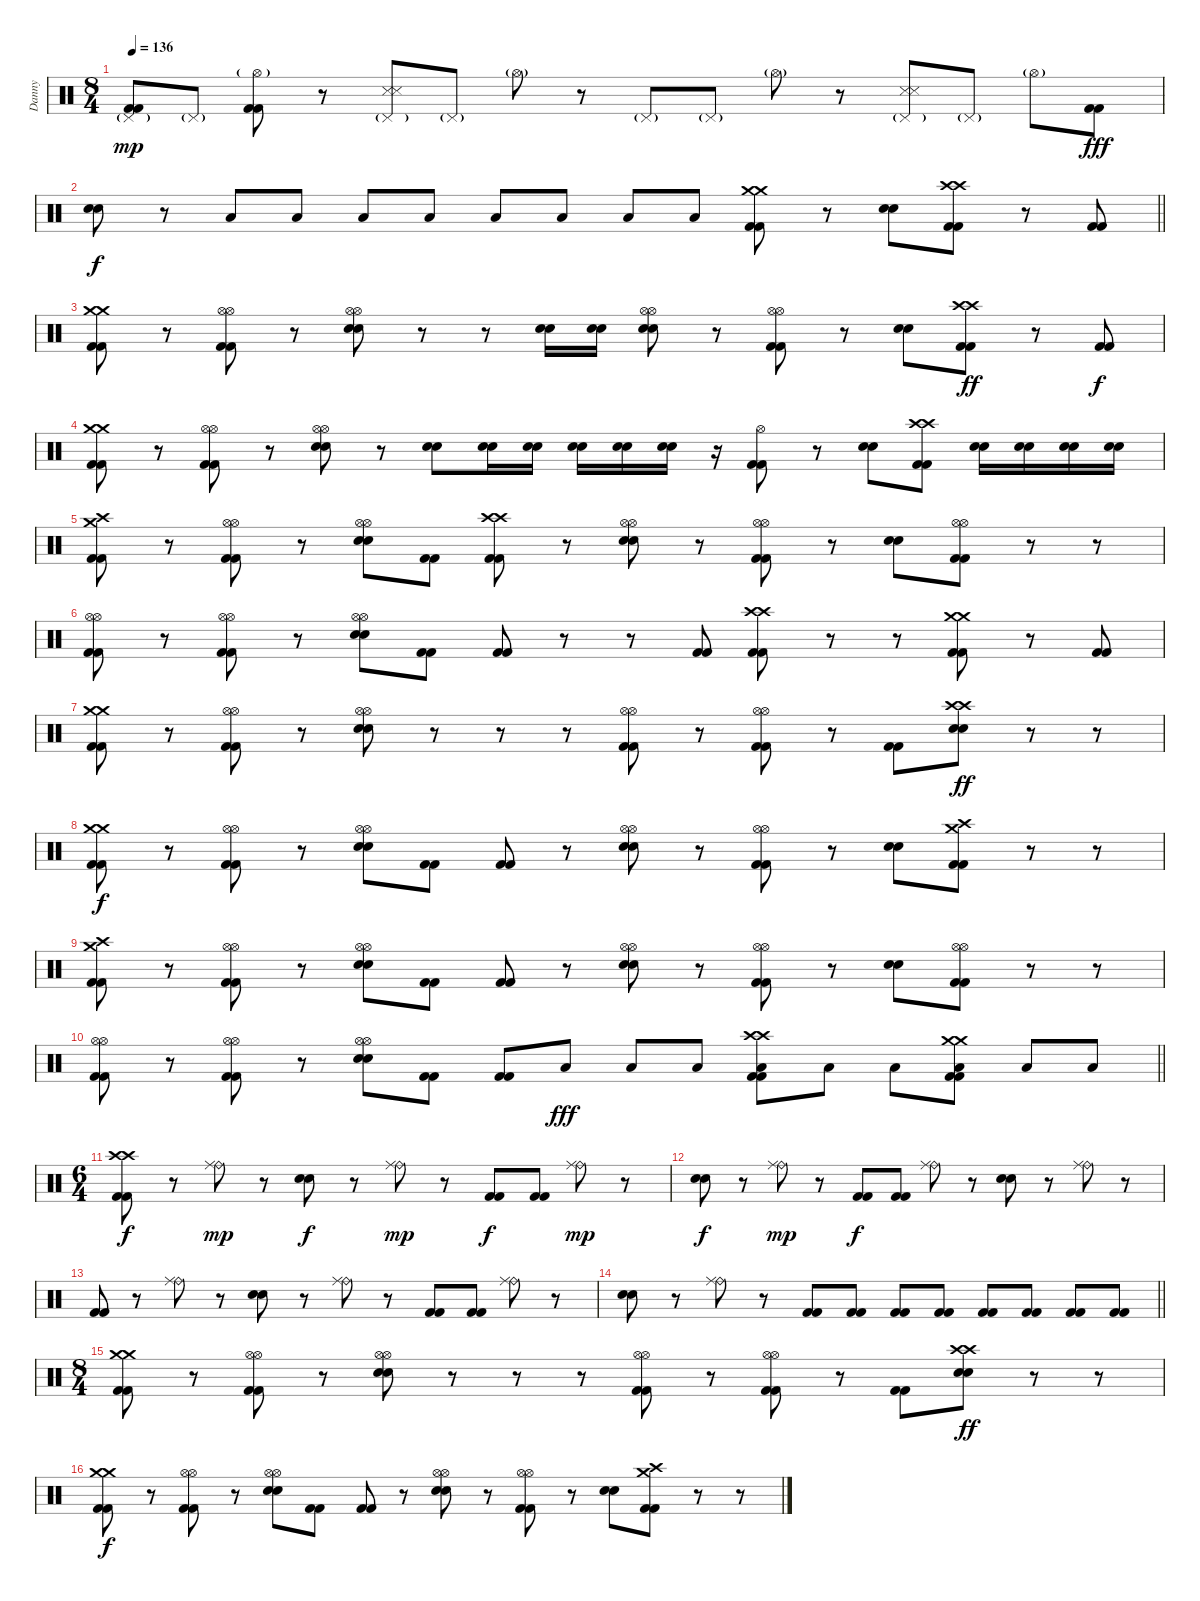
\track ("Danny" "Danny") {instrument percussion}
\staff {score}
\articulation defaults
\ts (8 4)
\section ("" "")
\tempo 136
\clef neutral
\ks c
("Pedal Hi-Hat (hit)"{g} "Kick (hit) 2" "Kick (hit) 2").8{dy mp} "Pedal Hi-Hat (hit)"{g}.8 ("Hi-Hat (open)"{g} "Kick (hit) 2" "Kick (hit) 2").8 r.8 ("Pedal Hi-Hat (hit)"{g} "Snare (side stick) 3" "Snare (side stick) 3").8 "Pedal Hi-Hat (hit)"{g}.8 "Hi-Hat (open)"{g}.8 r.8 "Pedal Hi-Hat (hit)"{g}.8 "Pedal Hi-Hat (hit)"{g}.8 "Hi-Hat (open)"{g}.8 r.8 ("Pedal Hi-Hat (hit)"{g} "Snare (side stick) 3" "Snare (side stick) 3").8 "Pedal Hi-Hat (hit)"{g}.8 "Hi-Hat (open)"{g}.8 ("Kick (hit) 2" "Kick (hit) 2").8{dy fff} |
\barLineRight lightlight
("Snare (hit) 2" "Snare (hit) 2").8{dy f} r.8 "Low Tom (hit)".8 "Low Tom (hit)".8 "Low Tom (hit)".8 "Low Tom (hit)".8 "Low Tom (hit)".8 "Low Tom (hit)".8 "Low Tom (hit)".8 "Low Tom (hit)".8 ("Crash medium (hit)" "Kick (hit) 2" "Kick (hit) 2" "Crash medium (hit)").8 r.8 ("Snare (hit) 2" "Snare (hit) 2").8 ("Crash high (hit)" "Kick (hit) 2" "Kick (hit) 2" "Crash high (hit)").8 r.8 ("Kick (hit) 2" "Kick (hit) 2").8 |
\section ("" "")
("Crash medium (hit)" "Kick (hit) 2" "Kick (hit) 2" "Crash medium (hit)").8 r.8 ("Hi-Hat (open)" "Kick (hit) 2" "Kick (hit) 2" "Hi-Hat (open)").8 r.8 ("Hi-Hat (open)" "Snare (hit) 2" "Snare (hit) 2" "Hi-Hat (open)").8 r.8 r.8 ("Snare (hit) 2" "Snare (hit) 2").16 ("Snare (hit) 2" "Snare (hit) 2").16 ("Hi-Hat (open)" "Snare (hit) 2" "Snare (hit) 2" "Hi-Hat (open)").8 r.8 ("Hi-Hat (open)" "Kick (hit) 2" "Kick (hit) 2" "Hi-Hat (open)").8 r.8 ("Snare (hit) 2" "Snare (hit) 2").8 ("Crash high (hit)" "Kick (hit) 2" "Kick (hit) 2" "Crash high (hit)").8{dy ff} r.8 ("Kick (hit) 2" "Kick (hit) 2").8{dy f} |
("Crash medium (hit)" "Kick (hit) 2" "Kick (hit) 2" "Crash medium (hit)").8 r.8 ("Hi-Hat (open)" "Kick (hit) 2" "Kick (hit) 2" "Hi-Hat (open)").8 r.8 ("Hi-Hat (open)" "Snare (hit) 2" "Snare (hit) 2" "Hi-Hat (open)").8 r.8 ("Snare (hit) 2" "Snare (hit) 2").8 ("Snare (hit) 2" "Snare (hit) 2").16 ("Snare (hit) 2" "Snare (hit) 2").16 ("Snare (hit) 2" "Snare (hit) 2").16 ("Snare (hit) 2" "Snare (hit) 2").16 ("Snare (hit) 2" "Snare (hit) 2").16 r.16 ("Kick (hit) 2" "Kick (hit) 2" "Hi-Hat (open)").8 r.8 ("Snare (hit) 2" "Snare (hit) 2").8 ("Crash high (hit)" "Kick (hit) 2" "Kick (hit) 2" "Crash high (hit)").8 ("Snare (hit) 2" "Snare (hit) 2").16 ("Snare (hit) 2" "Snare (hit) 2").16 ("Snare (hit) 2" "Snare (hit) 2").16 ("Snare (hit) 2" "Snare (hit) 2").16 |
("Crash medium (hit)" "Kick (hit) 2" "Kick (hit) 2" "Crash high (hit)").8 r.8 ("Hi-Hat (open)" "Kick (hit) 2" "Kick (hit) 2" "Hi-Hat (open)").8 r.8 ("Hi-Hat (open)" "Snare (hit) 2" "Snare (hit) 2" "Hi-Hat (open)").8 ("Kick (hit) 2" "Kick (hit) 2").8 ("Crash high (hit)" "Kick (hit) 2" "Kick (hit) 2" "Crash high (hit)").8 r.8 ("Hi-Hat (open)" "Snare (hit) 2" "Snare (hit) 2" "Hi-Hat (open)").8 r.8 ("Hi-Hat (open)" "Kick (hit) 2" "Kick (hit) 2" "Hi-Hat (open)").8 r.8 ("Snare (hit) 2" "Snare (hit) 2").8 ("Hi-Hat (open)" "Kick (hit) 2" "Kick (hit) 2" "Hi-Hat (open)").8 r.8 r.8 |
("Hi-Hat (open)" "Kick (hit) 2" "Kick (hit) 2" "Hi-Hat (open)").8 r.8 ("Hi-Hat (open)" "Kick (hit) 2" "Kick (hit) 2" "Hi-Hat (open)").8 r.8 ("Hi-Hat (open)" "Snare (hit) 2" "Snare (hit) 2" "Hi-Hat (open)").8 ("Kick (hit) 2" "Kick (hit) 2").8 ("Kick (hit) 2" "Kick (hit) 2").8 r.8 r.8 ("Kick (hit) 2" "Kick (hit) 2").8 ("Crash high (hit)" "Kick (hit) 2" "Kick (hit) 2" "Crash high (hit)").8 r.8 r.8 ("Crash medium (hit)" "Kick (hit) 2" "Kick (hit) 2" "Crash medium (hit)").8 r.8 ("Kick (hit) 2" "Kick (hit) 2").8 |
("Crash medium (hit)" "Kick (hit) 2" "Kick (hit) 2" "Crash medium (hit)").8 r.8 ("Hi-Hat (open)" "Kick (hit) 2" "Kick (hit) 2" "Hi-Hat (open)").8 r.8 ("Hi-Hat (open)" "Snare (hit) 2" "Snare (hit) 2" "Hi-Hat (open)").8 r.8 r.8 r.8 ("Hi-Hat (open)" "Kick (hit) 2" "Kick (hit) 2" "Hi-Hat (open)").8 r.8 ("Hi-Hat (open)" "Kick (hit) 2" "Kick (hit) 2" "Hi-Hat (open)").8 r.8 ("Kick (hit) 2" "Kick (hit) 2").8 ("Crash high (hit)" "Snare (hit) 2" "Snare (hit) 2" "Crash high (hit)").8{dy ff} r.8 r.8 |
("Crash medium (hit)" "Kick (hit) 2" "Kick (hit) 2" "Crash medium (hit)").8{dy f} r.8 ("Hi-Hat (open)" "Kick (hit) 2" "Kick (hit) 2" "Hi-Hat (open)").8 r.8 ("Hi-Hat (open)" "Snare (hit) 2" "Snare (hit) 2" "Hi-Hat (open)").8 ("Kick (hit) 2" "Kick (hit) 2").8 ("Kick (hit) 2" "Kick (hit) 2").8 r.8 ("Hi-Hat (open)" "Snare (hit) 2" "Snare (hit) 2" "Hi-Hat (open)").8 r.8 ("Hi-Hat (open)" "Kick (hit) 2" "Kick (hit) 2" "Hi-Hat (open)").8 r.8 ("Snare (hit) 2" "Snare (hit) 2").8 ("Crash medium (hit)" "Kick (hit) 2" "Kick (hit) 2" "Crash high (hit)").8 r.8 r.8 |
("Crash medium (hit)" "Kick (hit) 2" "Kick (hit) 2" "Crash high (hit)").8 r.8 ("Hi-Hat (open)" "Kick (hit) 2" "Kick (hit) 2" "Hi-Hat (open)").8 r.8 ("Hi-Hat (open)" "Snare (hit) 2" "Snare (hit) 2" "Hi-Hat (open)").8 ("Kick (hit) 2" "Kick (hit) 2").8 ("Kick (hit) 2" "Kick (hit) 2").8 r.8 ("Hi-Hat (open)" "Snare (hit) 2" "Snare (hit) 2" "Hi-Hat (open)").8 r.8 ("Hi-Hat (open)" "Kick (hit) 2" "Kick (hit) 2" "Hi-Hat (open)").8 r.8 ("Snare (hit) 2" "Snare (hit) 2").8 ("Hi-Hat (open)" "Kick (hit) 2" "Kick (hit) 2" "Hi-Hat (open)").8 r.8 r.8 |
\barLineRight lightlight
("Hi-Hat (open)" "Kick (hit) 2" "Kick (hit) 2" "Hi-Hat (open)").8 r.8 ("Hi-Hat (open)" "Kick (hit) 2" "Kick (hit) 2" "Hi-Hat (open)").8 r.8 ("Hi-Hat (open)" "Snare (hit) 2" "Snare (hit) 2" "Hi-Hat (open)").8 ("Kick (hit) 2" "Kick (hit) 2").8 ("Kick (hit) 2" "Kick (hit) 2").8 "Low Tom (hit)".8{dy fff} "Low Tom (hit)".8 "Low Tom (hit)".8 ("Crash high (hit)" "Kick (hit) 2" "Kick (hit) 2" "Crash high (hit)" "Low Tom (hit)").8 "Low Tom (hit)".8 "Low Tom (hit)".8 ("Crash medium (hit)" "Kick (hit) 2" "Kick (hit) 2" "Crash medium (hit)" "Low Tom (hit)").8 "Low Tom (hit)".8 "Low Tom (hit)".8 |
\ts (6 4)
\section ("" "")
("Crash high (hit)" "Kick (hit) 2" "Kick (hit) 2" "Crash high (hit)").8{dy f} r.8 ("Ride (bell)" "Ride (middle)").8{dy mp} r.8 ("Snare (hit) 2" "Snare (hit) 2").8{dy f} r.8 ("Ride (bell)" "Ride (middle)").8{dy mp} r.8 ("Kick (hit) 2" "Kick (hit) 2").8{dy f} ("Kick (hit) 2" "Kick (hit) 2").8 ("Ride (bell)" "Ride (middle)").8{dy mp} r.8 |
("Snare (hit) 2" "Snare (hit) 2").8{dy f} r.8 ("Ride (bell)" "Ride (middle)").8{dy mp} r.8 ("Kick (hit) 2" "Kick (hit) 2").8{dy f} ("Kick (hit) 2" "Kick (hit) 2").8 ("Ride (bell)" "Ride (middle)").8 r.8 ("Snare (hit) 2" "Snare (hit) 2").8 r.8 ("Ride (bell)" "Ride (middle)").8 r.8 |
("Kick (hit) 2" "Kick (hit) 2").8 r.8 ("Ride (bell)" "Ride (middle)").8 r.8 ("Snare (hit) 2" "Snare (hit) 2").8 r.8 ("Ride (bell)" "Ride (middle)").8 r.8 ("Kick (hit) 2" "Kick (hit) 2").8 ("Kick (hit) 2" "Kick (hit) 2").8 ("Ride (bell)" "Ride (middle)").8 r.8 |
\barLineRight lightlight
("Snare (hit) 2" "Snare (hit) 2").8 r.8 ("Ride (bell)" "Ride (middle)").8 r.8 ("Kick (hit) 2" "Kick (hit) 2").8 ("Kick (hit) 2" "Kick (hit) 2").8 ("Kick (hit) 2" "Kick (hit) 2").8 ("Kick (hit) 2" "Kick (hit) 2").8 ("Kick (hit) 2" "Kick (hit) 2").8 ("Kick (hit) 2" "Kick (hit) 2").8 ("Kick (hit) 2" "Kick (hit) 2").8 ("Kick (hit) 2" "Kick (hit) 2").8 |
\ts (8 4)
\section ("" "")
("Crash medium (hit)" "Kick (hit) 2" "Kick (hit) 2" "Crash medium (hit)").8 r.8 ("Hi-Hat (open)" "Kick (hit) 2" "Kick (hit) 2" "Hi-Hat (open)").8 r.8 ("Hi-Hat (open)" "Snare (hit) 2" "Snare (hit) 2" "Hi-Hat (open)").8 r.8 r.8 r.8 ("Hi-Hat (open)" "Kick (hit) 2" "Kick (hit) 2" "Hi-Hat (open)").8 r.8 ("Hi-Hat (open)" "Kick (hit) 2" "Kick (hit) 2" "Hi-Hat (open)").8 r.8 ("Kick (hit) 2" "Kick (hit) 2").8 ("Crash high (hit)" "Snare (hit) 2" "Snare (hit) 2" "Crash high (hit)").8{dy ff} r.8 r.8 |
("Crash medium (hit)" "Kick (hit) 2" "Kick (hit) 2" "Crash medium (hit)").8{dy f} r.8 ("Hi-Hat (open)" "Kick (hit) 2" "Kick (hit) 2" "Hi-Hat (open)").8 r.8 ("Hi-Hat (open)" "Snare (hit) 2" "Snare (hit) 2" "Hi-Hat (open)").8 ("Kick (hit) 2" "Kick (hit) 2").8 ("Kick (hit) 2" "Kick (hit) 2").8 r.8 ("Hi-Hat (open)" "Snare (hit) 2" "Snare (hit) 2" "Hi-Hat (open)").8 r.8 ("Hi-Hat (open)" "Kick (hit) 2" "Kick (hit) 2" "Hi-Hat (open)").8 r.8 ("Snare (hit) 2" "Snare (hit) 2").8 ("Crash medium (hit)" "Kick (hit) 2" "Kick (hit) 2" "Crash high (hit)").8 r.8 r.8
